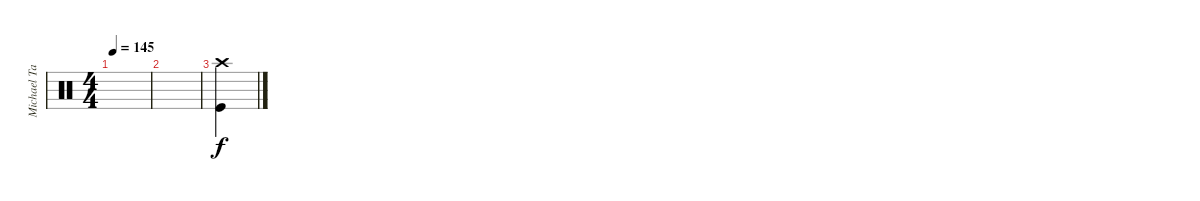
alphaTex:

\track ("Michael Tapper - Drums" "Michael Ta") {instrument percussion}
\staff {score}
\articulation defaults
\ts (4 4)
\tempo 145
\clef neutral
\ks c
|
|
("Crash high (hit)" "Kick (hit)").4
